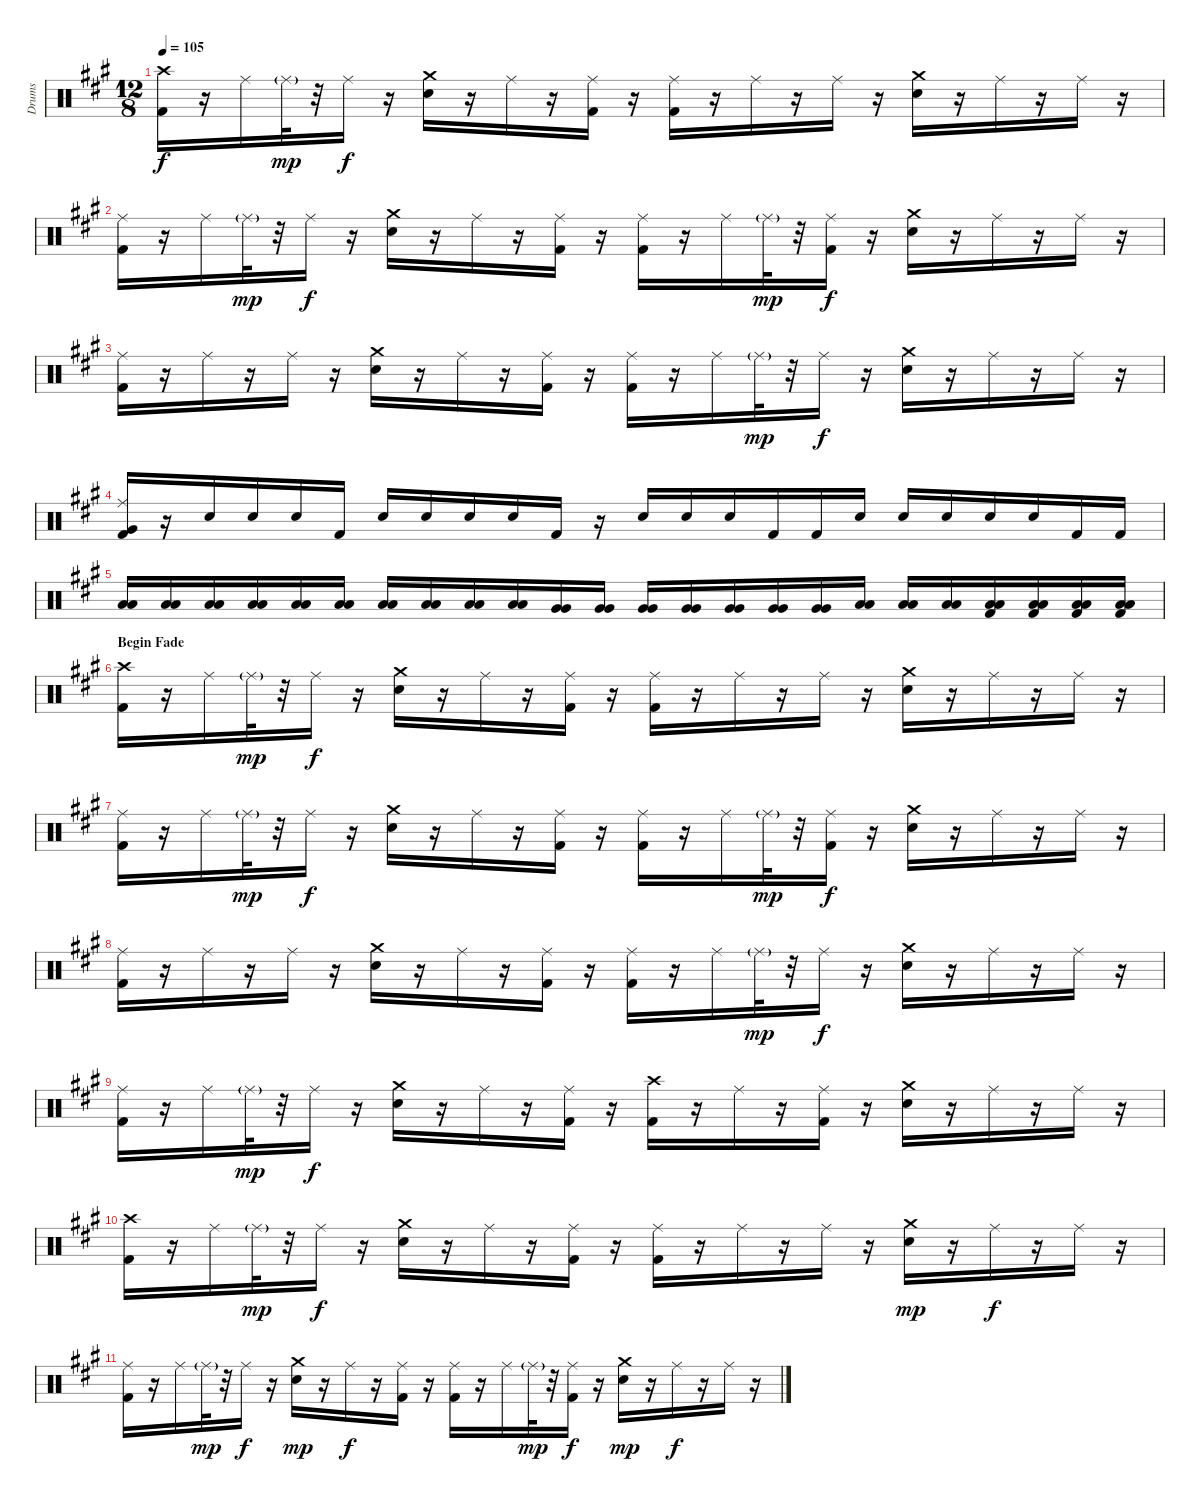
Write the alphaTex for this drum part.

\track ("Drums" "Drums") {instrument percussion}
\staff {score}
\articulation defaults
\ts (12 8)
\tempo 105
\clef neutral
\ks a
("Crash high (hit)" "Kick (hit) 2").16{dy f} r.16 "Ride (middle)".16 "Ride (middle)"{g}.32{dy mp} r.32 "Ride (middle)".16{dy f} r.16 ("Crash medium (hit)" "Snare (hit) 2").16 r.16 "Ride (middle)".16 r.16 ("Ride (middle)" "Kick (hit) 2").16 r.16 ("Ride (middle)" "Kick (hit) 2").16 r.16 "Ride (middle)".16 r.16 "Ride (middle)".16 r.16 ("Crash medium (hit)" "Snare (hit) 2").16 r.16 "Ride (middle)".16 r.16 "Ride (middle)".16 r.16 |
("Ride (middle)" "Kick (hit) 2").16 r.16 "Ride (middle)".16 "Ride (middle)"{g}.32{dy mp} r.32 "Ride (middle)".16{dy f} r.16 ("Crash medium (hit)" "Snare (hit) 2").16 r.16 "Ride (middle)".16 r.16 ("Ride (middle)" "Kick (hit) 2").16 r.16 ("Ride (middle)" "Kick (hit) 2").16 r.16 "Ride (middle)".16 "Ride (middle)"{g}.32{dy mp} r.32 ("Ride (middle)" "Kick (hit) 2").16{dy f} r.16 ("Crash medium (hit)" "Snare (hit) 2").16 r.16 "Ride (middle)".16 r.16 "Ride (middle)".16 r.16 |
("Ride (middle)" "Kick (hit) 2").16 r.16 "Ride (middle)".16 r.16 "Ride (middle)".16 r.16 ("Crash medium (hit)" "Snare (hit) 2").16 r.16 "Ride (middle)".16 r.16 ("Ride (middle)" "Kick (hit) 2").16 r.16 ("Ride (middle)" "Kick (hit) 2").16 r.16 "Ride (middle)".16 "Ride (middle)"{g}.32{dy mp} r.32 "Ride (middle)".16{dy f} r.16 ("Crash medium (hit)" "Snare (hit) 2").16 r.16 "Ride (middle)".16 r.16 "Ride (middle)".16 r.16 |
("Ride (middle)" "Very Low Tom (hit)" "Kick (hit) 2").16 r.16 "Electric Snare (hit)".16 "Electric Snare (hit)".16 "Electric Snare (hit)".16 "Kick (hit) 2".16 "Electric Snare (hit)".16 "Electric Snare (hit)".16 "Electric Snare (hit)".16 "Electric Snare (hit)".16 "Kick (hit) 2".16 r.16 "Electric Snare (hit)".16 "Electric Snare (hit)".16 "Electric Snare (hit)".16 "Kick (hit) 2".16 "Kick (hit) 2".16 "Electric Snare (hit)".16 "Electric Snare (hit)".16 "Electric Snare (hit)".16 "Electric Snare (hit)".16 "Electric Snare (hit)".16 "Kick (hit) 2".16 "Kick (hit) 2".16 |
("Low Tom (hit)" "Low Tom (hit)").16 ("Low Tom (hit)" "Low Tom (hit)").16 ("Low Tom (hit)" "Low Tom (hit)").16 ("Low Tom (hit)" "Low Tom (hit)").16 ("Low Tom (hit)" "Low Tom (hit)").16 ("Low Tom (hit)" "Low Tom (hit)").16 ("Low Tom (hit)" "Low Tom (hit)").16 ("Low Tom (hit)" "Low Tom (hit)").16 ("Low Tom (hit)" "Low Tom (hit)").16 ("Low Tom (hit)" "Low Tom (hit)").16 ("Very Low Tom (hit)" "Very Low Tom (hit)").16 ("Very Low Tom (hit)" "Very Low Tom (hit)").16 ("Very Low Tom (hit)" "Very Low Tom (hit)").16 ("Very Low Tom (hit)" "Very Low Tom (hit)").16 ("Very Low Tom (hit)" "Very Low Tom (hit)").16 ("Very Low Tom (hit)" "Very Low Tom (hit)").16 ("Very Low Tom (hit)" "Very Low Tom (hit)").16 ("Low Floor Tom (hit)" "Low Floor Tom (hit)").16 ("Low Floor Tom (hit)" "Low Floor Tom (hit)").16 ("Low Floor Tom (hit)" "Low Floor Tom (hit)").16 ("Low Floor Tom (hit)" "Low Floor Tom (hit)" "Kick (hit) 2").16 ("Low Floor Tom (hit)" "Low Floor Tom (hit)" "Kick (hit) 2").16 ("Low Floor Tom (hit)" "Low Floor Tom (hit)" "Kick (hit) 2").16 ("Low Floor Tom (hit)" "Low Floor Tom (hit)" "Kick (hit) 2").16 |
\section ("" "Begin Fade")
("Crash high (hit)" "Kick (hit) 2").16{volume 12} r.16 "Ride (middle)".16 "Ride (middle)"{g}.32{dy mp} r.32 "Ride (middle)".16{dy f} r.16 ("Crash medium (hit)" "Snare (hit) 2").16 r.16 "Ride (middle)".16 r.16 ("Ride (middle)" "Kick (hit) 2").16 r.16 ("Ride (middle)" "Kick (hit) 2").16 r.16 "Ride (middle)".16 r.16 "Ride (middle)".16 r.16 ("Crash medium (hit)" "Snare (hit) 2").16 r.16 "Ride (middle)".16 r.16 "Ride (middle)".16 r.16 |
("Ride (middle)" "Kick (hit) 2").16 r.16 "Ride (middle)".16 "Ride (middle)"{g}.32{dy mp} r.32 "Ride (middle)".16{dy f} r.16 ("Crash medium (hit)" "Snare (hit) 2").16{volume 11} r.16 "Ride (middle)".16 r.16 ("Ride (middle)" "Kick (hit) 2").16 r.16 ("Ride (middle)" "Kick (hit) 2").16 r.16 "Ride (middle)".16 "Ride (middle)"{g}.32{dy mp} r.32 ("Ride (middle)" "Kick (hit) 2").16{dy f} r.16 ("Crash medium (hit)" "Snare (hit) 2").16 r.16 "Ride (middle)".16 r.16 "Ride (middle)".16 r.16 |
("Ride (middle)" "Kick (hit) 2").16 r.16 "Ride (middle)".16 r.16 "Ride (middle)".16 r.16 ("Crash medium (hit)" "Snare (hit) 2").16{volume 10} r.16 "Ride (middle)".16 r.16 ("Ride (middle)" "Kick (hit) 2").16 r.16 ("Ride (middle)" "Kick (hit) 2").16 r.16 "Ride (middle)".16 "Ride (middle)"{g}.32{dy mp} r.32 "Ride (middle)".16{dy f} r.16 ("Crash medium (hit)" "Snare (hit) 2").16{volume 9} r.16 "Ride (middle)".16 r.16 "Ride (middle)".16 r.16 |
("Ride (middle)" "Kick (hit) 2").16 r.16 "Ride (middle)".16 "Ride (middle)"{g}.32{dy mp} r.32 "Ride (middle)".16{dy f} r.16 ("Crash medium (hit)" "Snare (hit) 2").16{volume 8} r.16 "Ride (middle)".16 r.16 ("Ride (middle)" "Kick (hit) 2").16 r.16 ("Crash high (hit)" "Kick (hit) 2").16 r.16 "Ride (middle)".16 r.16 ("Ride (middle)" "Kick (hit) 2").16 r.16 ("Crash medium (hit)" "Snare (hit) 2").16 r.16 "Ride (middle)".16 r.16{volume 7} "Ride (middle)".16 r.16 |
("Crash high (hit)" "Kick (hit) 2").16 r.16 "Ride (middle)".16 "Ride (middle)"{g}.32{dy mp} r.32 "Ride (middle)".16{dy f} r.16 ("Crash medium (hit)" "Snare (hit) 2").16{volume 6} r.16 "Ride (middle)".16 r.16 ("Ride (middle)" "Kick (hit) 2").16 r.16 ("Ride (middle)" "Kick (hit) 2").16 r.16 "Ride (middle)".16 r.16 "Ride (middle)".16 r.16 ("Crash medium (hit)" "Snare (hit) 2").16{dy mp} r.16{volume 5} "Ride (middle)".16{dy f} r.16 "Ride (middle)".16 r.16 |
("Ride (middle)" "Kick (hit) 2").16 r.16{volume 4} "Ride (middle)".16 "Ride (middle)"{g}.32{dy mp} r.32 "Ride (middle)".16{dy f} r.16 ("Crash medium (hit)" "Snare (hit) 2").16{dy mp} r.16 "Ride (middle)".16{dy f} r.16 ("Ride (middle)" "Kick (hit) 2").16 r.16{volume 3} ("Ride (middle)" "Kick (hit) 2").16 r.16 "Ride (middle)".16 "Ride (middle)"{g}.32{dy mp} r.32 ("Ride (middle)" "Kick (hit) 2").16{dy f} r.16 ("Crash medium (hit)" "Snare (hit) 2").16{dy mp} r.16{volume 2} "Ride (middle)".16{dy f} r.16 "Ride (middle)".16 r.16
